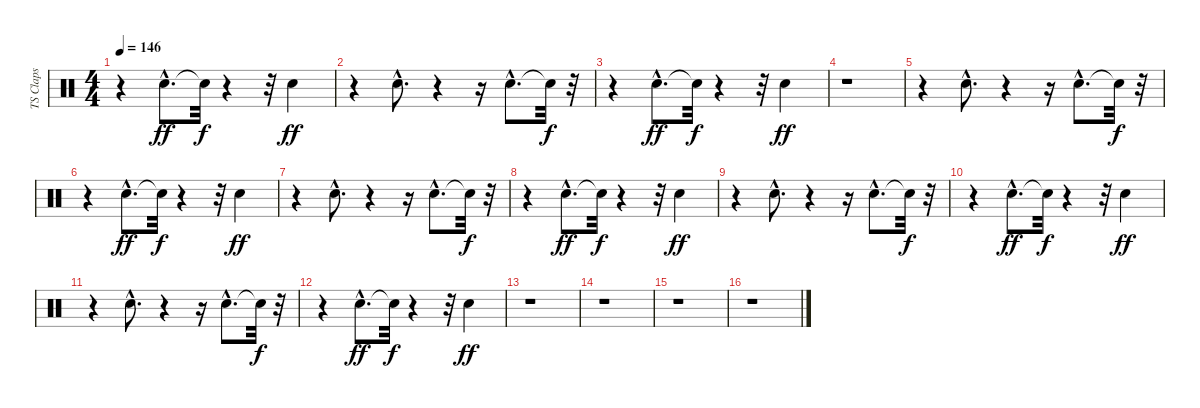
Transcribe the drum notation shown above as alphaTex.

\track ("TS Claps" "TS Claps") {instrument percussion}
\staff {score}
\articulation defaults
\ts (4 4)
\tempo 146
\clef neutral
\ks c
r.4{dy f} "Hand Clap (hit)"{hac}.8{d dy ff} "Snare (hit)"{t}.32{dy f} r.4 r.32 "Hand Clap (hit)".4{dy ff} |
r.4 "Hand Clap (hit)"{hac}.8{d} r.4 r.16 "Hand Clap (hit)"{hac}.8{d} "Snare (hit)"{t}.32{dy f} r.32 |
r.4 "Hand Clap (hit)"{hac}.8{d dy ff} "Snare (hit)"{t}.32{dy f} r.4 r.32 "Hand Clap (hit)".4{dy ff} |
r.1 |
r.4 "Hand Clap (hit)"{hac}.8{d} r.4 r.16 "Hand Clap (hit)"{hac}.8{d} "Snare (hit)"{t}.32{dy f} r.32 |
r.4 "Hand Clap (hit)"{hac}.8{d dy ff} "Snare (hit)"{t}.32{dy f} r.4 r.32 "Hand Clap (hit)".4{dy ff} |
r.4 "Hand Clap (hit)"{hac}.8{d} r.4 r.16 "Hand Clap (hit)"{hac}.8{d} "Snare (hit)"{t}.32{dy f} r.32 |
r.4 "Hand Clap (hit)"{hac}.8{d dy ff} "Snare (hit)"{t}.32{dy f} r.4 r.32 "Hand Clap (hit)".4{dy ff} |
r.4 "Hand Clap (hit)"{hac}.8{d} r.4 r.16 "Hand Clap (hit)"{hac}.8{d} "Snare (hit)"{t}.32{dy f} r.32 |
r.4 "Hand Clap (hit)"{hac}.8{d dy ff} "Snare (hit)"{t}.32{dy f} r.4 r.32 "Hand Clap (hit)".4{dy ff} |
r.4 "Hand Clap (hit)"{hac}.8{d} r.4 r.16 "Hand Clap (hit)"{hac}.8{d} "Snare (hit)"{t}.32{dy f} r.32 |
r.4 "Hand Clap (hit)"{hac}.8{d dy ff} "Snare (hit)"{t}.32{dy f} r.4 r.32 "Hand Clap (hit)".4{dy ff} |
r.1 |
r.1 |
r.1 |
r.1
